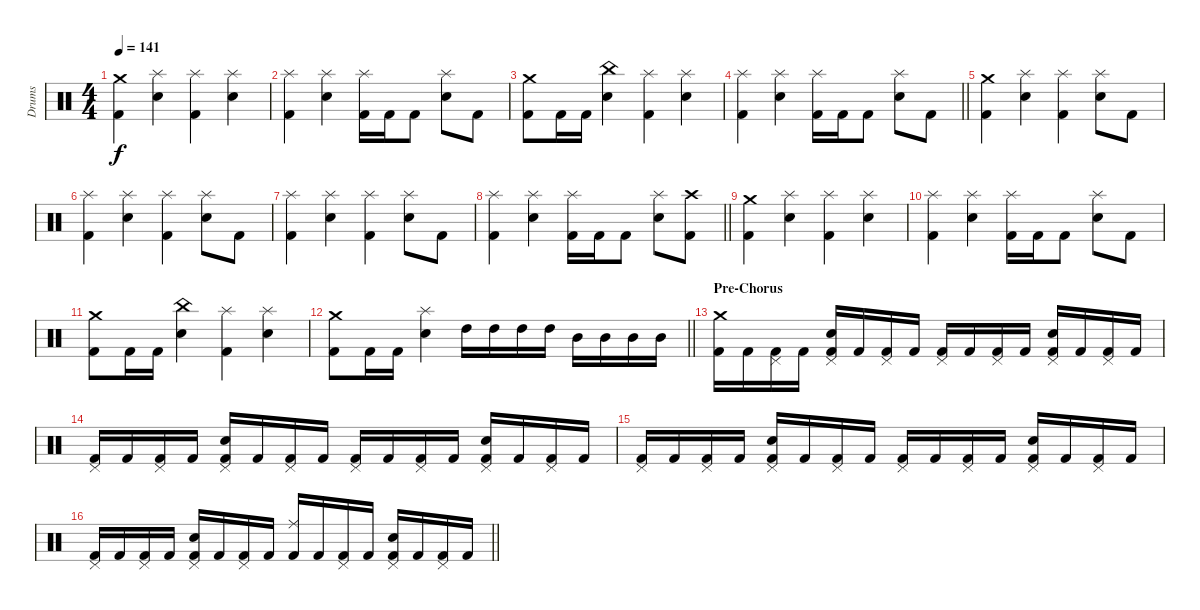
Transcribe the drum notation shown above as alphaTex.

\track ("Drums" "Drums") {instrument percussion}
\staff {score}
\articulation defaults
\ts (4 4)
\section ("" "")
\tempo 141
\clef neutral
\ks c
("Kick (hit) 2" "Crash medium (hit)").4{dy f} ("Snare (hit) 2" "Splash (hit)").4 ("Kick (hit) 2" "Splash (hit)").4 ("Snare (hit) 2" "Splash (hit)").4 |
("Kick (hit) 2" "Splash (hit)").4 ("Snare (hit) 2" "Splash (hit)").4 ("Kick (hit) 2" "Splash (hit)").16 "Kick (hit) 2".16 "Kick (hit) 2".8 ("Snare (hit) 2" "Splash (hit)").8 "Kick (hit) 2".8 |
("Kick (hit) 2" "Crash medium (hit)").8 "Kick (hit) 2".16 "Kick (hit) 2".16 ("Snare (hit) 2" "China (hit)").4 ("Kick (hit) 2" "Splash (hit)").4 ("Snare (hit) 2" "Splash (hit)").4 |
\barLineRight lightlight
("Kick (hit) 2" "Splash (hit)").4 ("Snare (hit) 2" "Splash (hit)").4 ("Kick (hit) 2" "Splash (hit)").16 "Kick (hit) 2".16 "Kick (hit) 2".8 ("Snare (hit) 2" "Splash (hit)").8 "Kick (hit) 2".8 |
\section ("" "")
("Kick (hit) 2" "Crash medium (hit)").4 ("Snare (hit) 2" "Splash (hit)").4 ("Kick (hit) 2" "Splash (hit)").4 ("Snare (hit) 2" "Splash (hit)").8 "Kick (hit) 2".8 |
("Kick (hit) 2" "Splash (hit)").4 ("Snare (hit) 2" "Splash (hit)").4 ("Kick (hit) 2" "Splash (hit)").4 ("Snare (hit) 2" "Splash (hit)").8 "Kick (hit) 2".8 |
("Kick (hit) 2" "Splash (hit)").4 ("Snare (hit) 2" "Splash (hit)").4 ("Kick (hit) 2" "Splash (hit)").4 ("Snare (hit) 2" "Splash (hit)").8 "Kick (hit) 2".8 |
\barLineRight lightlight
("Kick (hit) 2" "Splash (hit)").4 ("Snare (hit) 2" "Splash (hit)").4 ("Kick (hit) 2" "Splash (hit)").16 "Kick (hit) 2".16 "Kick (hit) 2".8 ("Snare (hit) 2" "Splash (hit)").8 ("Kick (hit) 2" "Crash high (hit)").8 |
\section ("" "")
("Kick (hit) 2" "Crash medium (hit)").4 ("Snare (hit) 2" "Splash (hit)").4 ("Kick (hit) 2" "Splash (hit)").4 ("Snare (hit) 2" "Splash (hit)").4 |
("Kick (hit) 2" "Splash (hit)").4 ("Snare (hit) 2" "Splash (hit)").4 ("Kick (hit) 2" "Splash (hit)").16 "Kick (hit) 2".16 "Kick (hit) 2".8 ("Snare (hit) 2" "Splash (hit)").8 "Kick (hit) 2".8 |
("Kick (hit) 2" "Crash medium (hit)").8 "Kick (hit) 2".16 "Kick (hit) 2".16 ("Snare (hit) 2" "China (hit)").4 ("Kick (hit) 2" "Splash (hit)").4 ("Snare (hit) 2" "Splash (hit)").4 |
\barLineRight lightlight
("Kick (hit) 2" "Crash medium (hit)").8 "Kick (hit) 2".16 "Kick (hit) 2".16 ("Snare (hit) 2" "Splash (hit)").4 "High Tom (hit)".16 "High Tom (hit)".16 "High Tom (hit)".16 "High Tom (hit)".16 "Mid Tom (hit)".16 "Mid Tom (hit)".16 "Mid Tom (hit)".16 "Mid Tom (hit)".16 |
\section ("" "Pre-Chorus")
("Kick (hit) 2" "Crash medium (hit)").16 "Kick (hit) 2".16 ("Kick (hit) 2" "Pedal Hi-Hat (hit)").16 "Kick (hit) 2".16 ("Kick (hit) 2" "Snare (hit) 2" "Pedal Hi-Hat (hit)").16 "Kick (hit) 2".16 ("Kick (hit) 2" "Pedal Hi-Hat (hit)").16 "Kick (hit) 2".16 ("Kick (hit) 2" "Pedal Hi-Hat (hit)").16 "Kick (hit) 2".16 ("Kick (hit) 2" "Pedal Hi-Hat (hit)").16 "Kick (hit) 2".16 ("Kick (hit) 2" "Snare (hit) 2" "Pedal Hi-Hat (hit)").16 "Kick (hit) 2".16 ("Kick (hit) 2" "Pedal Hi-Hat (hit)").16 "Kick (hit) 2".16 |
("Kick (hit) 2" "Pedal Hi-Hat (hit)").16 "Kick (hit) 2".16 ("Kick (hit) 2" "Pedal Hi-Hat (hit)").16 "Kick (hit) 2".16 ("Kick (hit) 2" "Snare (hit) 2" "Pedal Hi-Hat (hit)").16 "Kick (hit) 2".16 ("Kick (hit) 2" "Pedal Hi-Hat (hit)").16 "Kick (hit) 2".16 ("Kick (hit) 2" "Pedal Hi-Hat (hit)").16 "Kick (hit) 2".16 ("Kick (hit) 2" "Pedal Hi-Hat (hit)").16 "Kick (hit) 2".16 ("Kick (hit) 2" "Snare (hit) 2" "Pedal Hi-Hat (hit)").16 "Kick (hit) 2".16 ("Kick (hit) 2" "Pedal Hi-Hat (hit)").16 "Kick (hit) 2".16 |
("Kick (hit) 2" "Pedal Hi-Hat (hit)").16 "Kick (hit) 2".16 ("Kick (hit) 2" "Pedal Hi-Hat (hit)").16 "Kick (hit) 2".16 ("Kick (hit) 2" "Snare (hit) 2" "Pedal Hi-Hat (hit)").16 "Kick (hit) 2".16 ("Kick (hit) 2" "Pedal Hi-Hat (hit)").16 "Kick (hit) 2".16 ("Kick (hit) 2" "Pedal Hi-Hat (hit)").16 "Kick (hit) 2".16 ("Kick (hit) 2" "Pedal Hi-Hat (hit)").16 "Kick (hit) 2".16 ("Kick (hit) 2" "Snare (hit) 2" "Pedal Hi-Hat (hit)").16 "Kick (hit) 2".16 ("Kick (hit) 2" "Pedal Hi-Hat (hit)").16 "Kick (hit) 2".16 |
\barLineRight lightlight
("Kick (hit) 2" "Pedal Hi-Hat (hit)").16 "Kick (hit) 2".16 ("Kick (hit) 2" "Pedal Hi-Hat (hit)").16 "Kick (hit) 2".16 ("Kick (hit) 2" "Snare (hit) 2" "Pedal Hi-Hat (hit)").16 "Kick (hit) 2".16 ("Kick (hit) 2" "Pedal Hi-Hat (hit)").16 "Kick (hit) 2".16 ("Kick (hit) 2" "Ride (middle)").16 "Kick (hit) 2".16 ("Kick (hit) 2" "Pedal Hi-Hat (hit)").16 "Kick (hit) 2".16 ("Kick (hit) 2" "Snare (hit) 2" "Pedal Hi-Hat (hit)").16 "Kick (hit) 2".16 ("Kick (hit) 2" "Pedal Hi-Hat (hit)").16 "Kick (hit) 2".16
